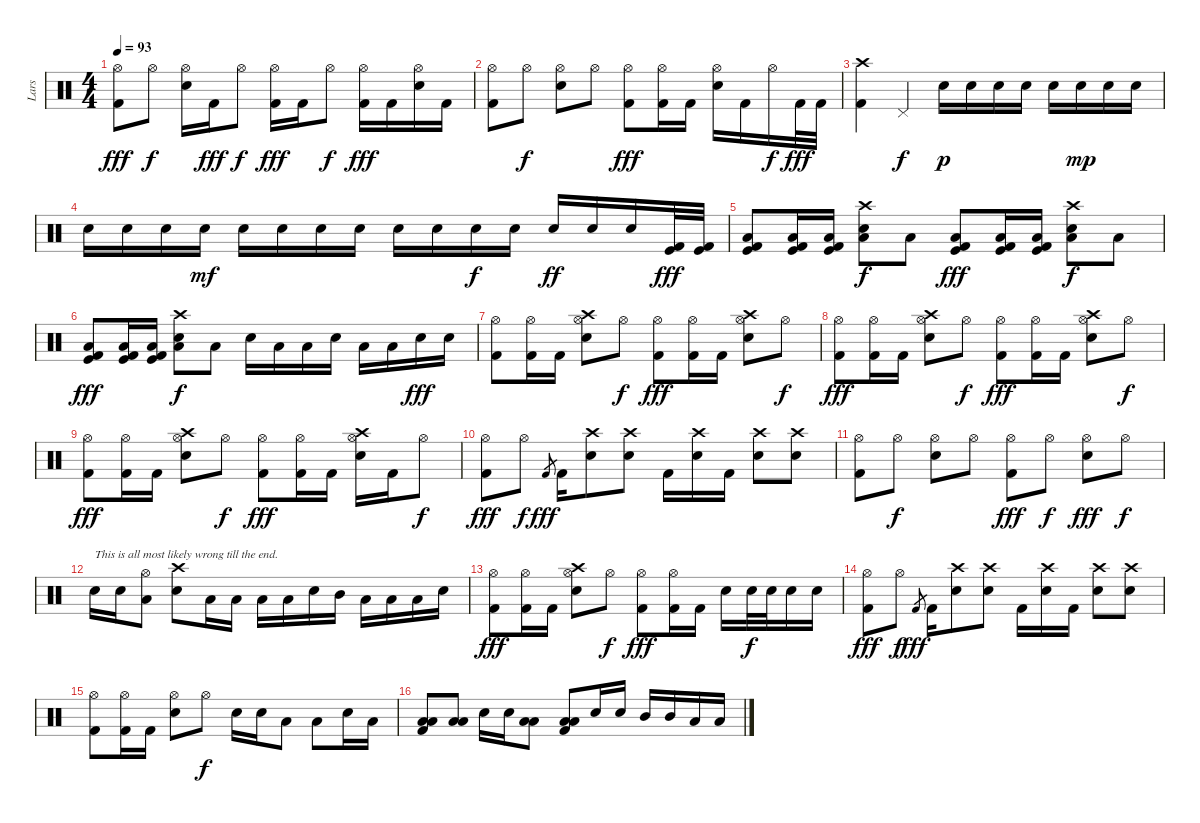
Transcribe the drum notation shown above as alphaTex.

\track ("Lars" "Lars") {instrument percussion}
\staff {score}
\articulation defaults
\ts (4 4)
\tempo 93
\clef neutral
\ks c
("Hi-Hat (open)" "Kick (hit) 2").8{dy fff} "Hi-Hat (open)".8{dy f} ("Hi-Hat (open)" "Snare (hit) 2").16 "Kick (hit) 2".16{dy fff} "Hi-Hat (open)".8{dy f} ("Hi-Hat (open)" "Kick (hit) 2").16{dy fff} "Kick (hit) 2".16 "Hi-Hat (open)".8{dy f} ("Hi-Hat (open)" "Kick (hit) 2").16{dy fff} "Kick (hit) 2".16 ("Hi-Hat (open)" "Snare (hit) 2").16 "Kick (hit) 2".16 |
("Hi-Hat (open)" "Kick (hit) 2").8 "Hi-Hat (open)".8{dy f} ("Hi-Hat (open)" "Snare (hit) 2").8 "Hi-Hat (open)".8 ("Hi-Hat (open)" "Kick (hit) 2").8{dy fff} ("Hi-Hat (open)" "Kick (hit) 2").16 "Kick (hit) 2".16 ("Hi-Hat (open)" "Snare (hit) 2").16 "Kick (hit) 2".16 "Hi-Hat (open)".16{dy f} "Kick (hit) 2".32{dy fff} "Kick (hit) 2".32 |
("Crash high (hit)" "Kick (hit) 2").4 "Pedal Hi-Hat (hit)".4{dy f} "Snare (hit) 2".16{dy p} "Snare (hit) 2".16 "Snare (hit) 2".16 "Snare (hit) 2".16 "Snare (hit) 2".16 "Snare (hit) 2".16{dy mp} "Snare (hit) 2".16 "Snare (hit) 2".16 |
"Snare (hit) 2".16 "Snare (hit) 2".16 "Snare (hit) 2".16 "Snare (hit) 2".16{dy mf} "Snare (hit) 2".16 "Snare (hit) 2".16 "Snare (hit) 2".16 "Snare (hit) 2".16 "Snare (hit) 2".16 "Snare (hit) 2".16 "Snare (hit) 2".16{dy f} "Snare (hit) 2".16 "Snare (hit) 2".16{dy ff} "Snare (hit) 2".16 "Snare (hit) 2".16 ("Kick (hit)" "Kick (hit) 2").32{dy fff} ("Kick (hit)" "Kick (hit) 2").32 |
("Low Floor Tom (hit)" "Kick (hit)" "Kick (hit) 2").8 ("Low Floor Tom (hit)" "Kick (hit)" "Kick (hit) 2").16 ("Low Floor Tom (hit)" "Kick (hit)" "Kick (hit) 2").16 ("Crash high (hit)" "Snare (hit) 2" "Low Floor Tom (hit)").8{dy f} "Low Floor Tom (hit)".8 ("Low Floor Tom (hit)" "Kick (hit)" "Kick (hit) 2").8{dy fff} ("Low Floor Tom (hit)" "Kick (hit)" "Kick (hit) 2").16 ("Low Floor Tom (hit)" "Kick (hit)" "Kick (hit) 2").16 ("Crash high (hit)" "Snare (hit) 2" "Low Floor Tom (hit)").8{dy f} "Low Floor Tom (hit)".8 |
("Low Floor Tom (hit)" "Kick (hit)" "Kick (hit) 2").8{dy fff} ("Low Floor Tom (hit)" "Kick (hit)" "Kick (hit) 2").16 ("Low Floor Tom (hit)" "Kick (hit)" "Kick (hit) 2").16 ("Crash high (hit)" "Snare (hit) 2" "Low Floor Tom (hit)").8{dy f} "Low Floor Tom (hit)".8 "Snare (hit) 2".16 "Low Tom (hit)".16 "Low Floor Tom (hit)".16 "Snare (hit) 2".16 "Low Tom (hit)".16 "Low Floor Tom (hit)".16 "Snare (hit) 2".16{dy fff} "Snare (hit) 2".16 |
("Hi-Hat (open)" "Kick (hit) 2").8 ("Hi-Hat (open)" "Kick (hit) 2").16 "Kick (hit) 2".16 ("Crash high (hit)" "Hi-Hat (open)" "Snare (hit) 2").8 "Hi-Hat (open)".8{dy f} ("Hi-Hat (open)" "Kick (hit) 2").8{dy fff} ("Hi-Hat (open)" "Kick (hit) 2").16 "Kick (hit) 2".16 ("Crash high (hit)" "Hi-Hat (open)" "Snare (hit) 2").8 "Hi-Hat (open)".8{dy f} |
("Hi-Hat (open)" "Kick (hit) 2").8{dy fff} ("Hi-Hat (open)" "Kick (hit) 2").16 "Kick (hit) 2".16 ("Crash high (hit)" "Hi-Hat (open)" "Snare (hit) 2").8 "Hi-Hat (open)".8{dy f} ("Hi-Hat (open)" "Kick (hit) 2").8{dy fff} ("Hi-Hat (open)" "Kick (hit) 2").16 "Kick (hit) 2".16 ("Crash high (hit)" "Hi-Hat (open)" "Snare (hit) 2").8 "Hi-Hat (open)".8{dy f} |
("Hi-Hat (open)" "Kick (hit) 2").8{dy fff} ("Hi-Hat (open)" "Kick (hit) 2").16 "Kick (hit) 2".16 ("Crash high (hit)" "Hi-Hat (open)" "Snare (hit) 2").8 "Hi-Hat (open)".8{dy f} ("Hi-Hat (open)" "Kick (hit) 2").8{dy fff} ("Hi-Hat (open)" "Kick (hit) 2").16 "Kick (hit) 2".16 ("Crash high (hit)" "Hi-Hat (open)" "Snare (hit) 2").16 "Kick (hit) 2".16 "Hi-Hat (open)".8{dy f} |
("Hi-Hat (open)" "Kick (hit) 2").8{dy fff} "Hi-Hat (open)".8{dy f} "Kick (hit) 2".8{gr dy fff} "Kick (hit) 2".16 ("Crash high (hit)" "Snare (hit) 2").8 ("Crash high (hit)" "Snare (hit) 2").8 "Kick (hit) 2".16 ("Crash high (hit)" "Snare (hit) 2").16 "Kick (hit) 2".16 ("Crash high (hit)" "Snare (hit) 2").8 ("Crash high (hit)" "Snare (hit) 2").8 |
("Hi-Hat (open)" "Kick (hit) 2").8 "Hi-Hat (open)".8{dy f} ("Hi-Hat (open)" "Snare (hit) 2").8 "Hi-Hat (open)".8 ("Hi-Hat (open)" "Kick (hit) 2").8{dy fff} "Hi-Hat (open)".8{dy f} ("Hi-Hat (open)" "Snare (hit) 2").8{dy fff} "Hi-Hat (open)".8{dy f} |
"Snare (hit) 2".16{txt "This is all most likely wrong till the end."} "Snare (hit) 2".16 ("Hi-Hat (open)" "Low Floor Tom (hit)").8 ("Crash high (hit)" "Snare (hit) 2").8 "Low Tom (hit)".16 "Low Tom (hit)".16 "Low Floor Tom (hit)".16 "Low Floor Tom (hit)".16 "Snare (hit) 2".16 "Mid Tom (hit)".16 "Low Tom (hit)".16 "Low Tom (hit)".16 "Low Floor Tom (hit)".16 "Snare (hit) 2".16 |
("Hi-Hat (open)" "Kick (hit) 2").8{dy fff} ("Hi-Hat (open)" "Kick (hit) 2").16 "Kick (hit) 2".16 ("Crash high (hit)" "Hi-Hat (open)" "Snare (hit) 2").8 "Hi-Hat (open)".8{dy f} ("Hi-Hat (open)" "Kick (hit) 2").8{dy fff} ("Hi-Hat (open)" "Kick (hit) 2").16 "Kick (hit) 2".16 "Snare (hit) 2".16 "Snare (hit) 2".32{dy f} "Snare (hit) 2".32 "Snare (hit) 2".16 "Snare (hit) 2".16 |
("Hi-Hat (open)" "Kick (hit) 2").8{dy fff} "Hi-Hat (open)".8{dy f} "Kick (hit) 2".8{gr dy fff} "Kick (hit) 2".16 ("Crash high (hit)" "Snare (hit) 2").8 ("Crash high (hit)" "Snare (hit) 2").8 "Kick (hit) 2".16 ("Crash high (hit)" "Snare (hit) 2").16 "Kick (hit) 2".16 ("Crash high (hit)" "Snare (hit) 2").8 ("Crash high (hit)" "Snare (hit) 2").8 |
("Hi-Hat (open)" "Kick (hit) 2").8 ("Hi-Hat (open)" "Kick (hit) 2").16 "Kick (hit) 2".16 ("Hi-Hat (open)" "Snare (hit) 2").8 "Hi-Hat (open)".8{dy f} "Snare (hit) 2".16 "Snare (hit) 2".16 "Low Tom (hit)".8 "Low Floor Tom (hit)".8 "Snare (hit) 2".16 "Low Tom (hit)".16 |
("Low Tom (hit)" "Low Floor Tom (hit)" "Kick (hit) 2").8 ("Low Tom (hit)" "Low Floor Tom (hit)").8 "Snare (hit) 2".16 "Snare (hit) 2".16 ("Low Tom (hit)" "Low Floor Tom (hit)").8 ("Low Tom (hit)" "Low Floor Tom (hit)" "Kick (hit) 2").8 "Snare (hit) 2".16 "Snare (hit) 2".16 "Mid Tom (hit)".16 "Mid Tom (hit)".16 "Low Tom (hit)".16 "Low Floor Tom (hit)".16
